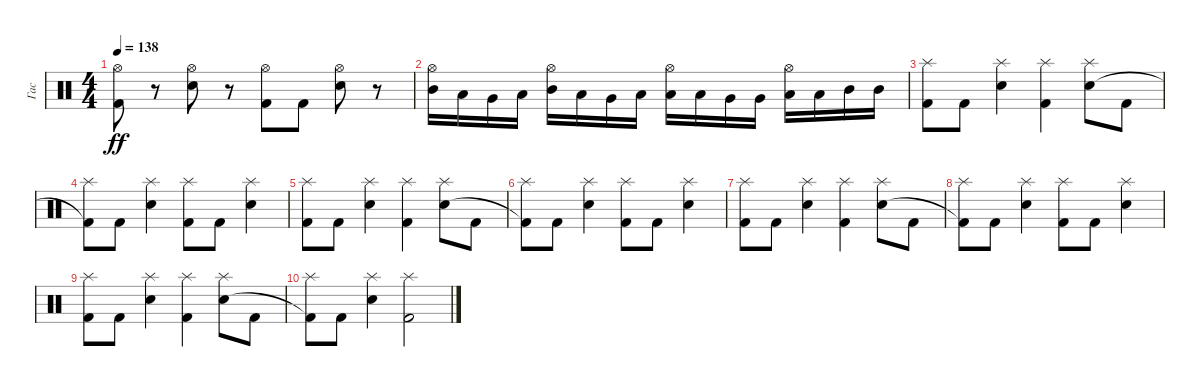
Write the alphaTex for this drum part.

\track ("Гас" "Гас") {instrument percussion}
\staff {score}
\articulation defaults
\ts (4 4)
\tempo 138
\clef neutral
\ks c
("Hi-Hat (open)" "Kick (hit) 2").8{dy ff} r.8 ("Hi-Hat (open)" "Electric Snare (hit)").8 r.8 ("Hi-Hat (open)" "Kick (hit) 2").8 "Kick (hit) 2".8 ("Hi-Hat (open)" "Electric Snare (hit)").8 r.8 |
("Hi-Hat (open)" "Mid Tom (hit)").16 "Low Tom (hit)".16 "Very Low Tom (hit)".16 "Low Floor Tom (hit)".16 ("Hi-Hat (open)" "Mid Tom (hit)").16 "Low Tom (hit)".16 "Very Low Tom (hit)".16 "Low Floor Tom (hit)".16 ("Hi-Hat (open)" "Low Floor Tom (hit)").16 "Low Floor Tom (hit)".16 "Very Low Tom (hit)".16 "Very Low Tom (hit)".16 ("Hi-Hat (open)" "Low Tom (hit)").16 "Low Tom (hit)".16 "Mid Tom (hit)".16 "Mid Tom (hit)".16 |
("Splash (hit)" "Kick (hit) 2").8 "Kick (hit) 2".8 ("Splash (hit)" "Electric Snare (hit)").4 ("Splash (hit)" "Kick (hit) 2").4 ("Splash (hit)" "Electric Snare (hit)").8 "Kick (hit) 2".8 |
("Splash (hit)" "Kick (hit) 2"{t}).8 "Kick (hit) 2".8 ("Splash (hit)" "Electric Snare (hit)").4 ("Splash (hit)" "Kick (hit) 2").8 "Kick (hit) 2".8 ("Splash (hit)" "Electric Snare (hit)").4 |
("Splash (hit)" "Kick (hit) 2").8 "Kick (hit) 2".8 ("Splash (hit)" "Electric Snare (hit)").4 ("Splash (hit)" "Kick (hit) 2").4 ("Splash (hit)" "Electric Snare (hit)").8 "Kick (hit) 2".8 |
("Splash (hit)" "Kick (hit) 2"{t}).8 "Kick (hit) 2".8 ("Splash (hit)" "Electric Snare (hit)").4 ("Splash (hit)" "Kick (hit) 2").8 "Kick (hit) 2".8 ("Splash (hit)" "Electric Snare (hit)").4 |
("Splash (hit)" "Kick (hit) 2").8 "Kick (hit) 2".8 ("Splash (hit)" "Electric Snare (hit)").4 ("Splash (hit)" "Kick (hit) 2").4 ("Splash (hit)" "Electric Snare (hit)").8 "Kick (hit) 2".8 |
("Splash (hit)" "Kick (hit) 2"{t}).8 "Kick (hit) 2".8 ("Splash (hit)" "Electric Snare (hit)").4 ("Splash (hit)" "Kick (hit) 2").8 "Kick (hit) 2".8 ("Splash (hit)" "Electric Snare (hit)").4 |
("Splash (hit)" "Kick (hit) 2").8 "Kick (hit) 2".8 ("Splash (hit)" "Electric Snare (hit)").4 ("Splash (hit)" "Kick (hit) 2").4 ("Splash (hit)" "Electric Snare (hit)").8 "Kick (hit) 2".8 |
("Splash (hit)" "Kick (hit) 2"{t}).8 "Kick (hit) 2".8 ("Splash (hit)" "Electric Snare (hit)").4 ("Splash (hit)" "Kick (hit) 2").2
